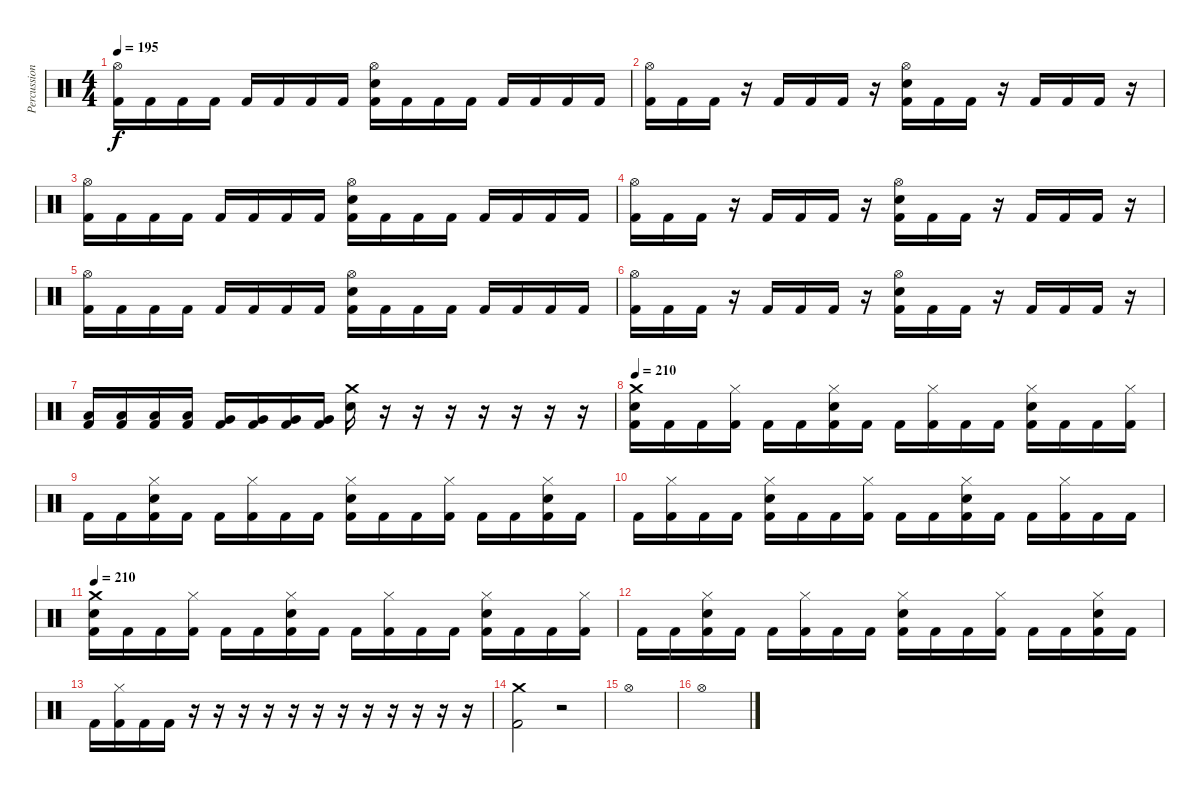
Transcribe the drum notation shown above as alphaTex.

\track ("Percussion" "Percussion") {instrument percussion}
\staff {score}
\articulation defaults
\ts (4 4)
\tempo 195
\clef neutral
\ks c
("Hi-Hat (open)" "Kick (hit) 2").16{dy f} "Kick (hit) 2".16 "Kick (hit) 2".16 "Kick (hit) 2".16 "Kick (hit) 2".16 "Kick (hit) 2".16 "Kick (hit) 2".16 "Kick (hit) 2".16 ("Hi-Hat (open)" "Snare (hit) 2" "Kick (hit) 2").16 "Kick (hit) 2".16 "Kick (hit) 2".16 "Kick (hit) 2".16 "Kick (hit) 2".16 "Kick (hit) 2".16 "Kick (hit) 2".16 "Kick (hit) 2".16 |
("Hi-Hat (open)" "Kick (hit) 2").16 "Kick (hit) 2".16 "Kick (hit) 2".16 r.16 "Kick (hit) 2".16 "Kick (hit) 2".16 "Kick (hit) 2".16 r.16 ("Hi-Hat (open)" "Snare (hit) 2" "Kick (hit) 2").16 "Kick (hit) 2".16 "Kick (hit) 2".16 r.16 "Kick (hit) 2".16 "Kick (hit) 2".16 "Kick (hit) 2".16 r.16 |
("Hi-Hat (open)" "Kick (hit) 2").16 "Kick (hit) 2".16 "Kick (hit) 2".16 "Kick (hit) 2".16 "Kick (hit) 2".16 "Kick (hit) 2".16 "Kick (hit) 2".16 "Kick (hit) 2".16 ("Hi-Hat (open)" "Snare (hit) 2" "Kick (hit) 2").16 "Kick (hit) 2".16 "Kick (hit) 2".16 "Kick (hit) 2".16 "Kick (hit) 2".16 "Kick (hit) 2".16 "Kick (hit) 2".16 "Kick (hit) 2".16 |
("Hi-Hat (open)" "Kick (hit) 2").16 "Kick (hit) 2".16 "Kick (hit) 2".16 r.16 "Kick (hit) 2".16 "Kick (hit) 2".16 "Kick (hit) 2".16 r.16 ("Hi-Hat (open)" "Snare (hit) 2" "Kick (hit) 2").16 "Kick (hit) 2".16 "Kick (hit) 2".16 r.16 "Kick (hit) 2".16 "Kick (hit) 2".16 "Kick (hit) 2".16 r.16 |
("Hi-Hat (open)" "Kick (hit) 2").16 "Kick (hit) 2".16 "Kick (hit) 2".16 "Kick (hit) 2".16 "Kick (hit) 2".16 "Kick (hit) 2".16 "Kick (hit) 2".16 "Kick (hit) 2".16 ("Hi-Hat (open)" "Snare (hit) 2" "Kick (hit) 2").16 "Kick (hit) 2".16 "Kick (hit) 2".16 "Kick (hit) 2".16 "Kick (hit) 2".16 "Kick (hit) 2".16 "Kick (hit) 2".16 "Kick (hit) 2".16 |
("Hi-Hat (open)" "Kick (hit) 2").16 "Kick (hit) 2".16 "Kick (hit) 2".16 r.16 "Kick (hit) 2".16 "Kick (hit) 2".16 "Kick (hit) 2".16 r.16 ("Hi-Hat (open)" "Snare (hit) 2" "Kick (hit) 2").16 "Kick (hit) 2".16 "Kick (hit) 2".16 r.16 "Kick (hit) 2".16 "Kick (hit) 2".16 "Kick (hit) 2".16 r.16 |
("Low Floor Tom (hit)" "Kick (hit) 2").16 ("Low Floor Tom (hit)" "Kick (hit) 2").16 ("Low Floor Tom (hit)" "Kick (hit) 2").16 ("Low Floor Tom (hit)" "Kick (hit) 2").16 ("Very Low Tom (hit)" "Kick (hit) 2").16 ("Very Low Tom (hit)" "Kick (hit) 2").16 ("Very Low Tom (hit)" "Kick (hit) 2").16 ("Very Low Tom (hit)" "Kick (hit) 2").16 ("Crash medium (hit)" "Snare (hit) 2").16 r.16 r.16 r.16 r.16 r.16 r.16 r.16 |
\tempo 210
("Crash medium (hit)" "Snare (hit) 2" "Kick (hit) 2").16 "Kick (hit) 2".16 "Kick (hit) 2".16 ("Hi-Hat (closed)" "Kick (hit) 2").16 "Kick (hit) 2".16 "Kick (hit) 2".16 ("Hi-Hat (closed)" "Snare (hit) 2" "Kick (hit) 2").16 "Kick (hit) 2".16 "Kick (hit) 2".16 ("Hi-Hat (closed)" "Kick (hit) 2").16 "Kick (hit) 2".16 "Kick (hit) 2".16 ("Hi-Hat (closed)" "Snare (hit) 2" "Kick (hit) 2").16 "Kick (hit) 2".16 "Kick (hit) 2".16 ("Hi-Hat (closed)" "Kick (hit) 2").16 |
"Kick (hit) 2".16 "Kick (hit) 2".16 ("Hi-Hat (closed)" "Snare (hit) 2" "Kick (hit) 2").16 "Kick (hit) 2".16 "Kick (hit) 2".16 ("Hi-Hat (closed)" "Kick (hit) 2").16 "Kick (hit) 2".16 "Kick (hit) 2".16 ("Hi-Hat (closed)" "Snare (hit) 2" "Kick (hit) 2").16 "Kick (hit) 2".16 "Kick (hit) 2".16 ("Hi-Hat (closed)" "Kick (hit) 2").16 "Kick (hit) 2".16 "Kick (hit) 2".16 ("Hi-Hat (closed)" "Snare (hit) 2" "Kick (hit) 2").16 "Kick (hit) 2".16 |
"Kick (hit) 2".16 ("Hi-Hat (closed)" "Kick (hit) 2").16 "Kick (hit) 2".16 "Kick (hit) 2".16 ("Hi-Hat (closed)" "Snare (hit) 2" "Kick (hit) 2").16 "Kick (hit) 2".16 "Kick (hit) 2".16 ("Hi-Hat (closed)" "Kick (hit) 2").16 "Kick (hit) 2".16 "Kick (hit) 2".16 ("Hi-Hat (closed)" "Snare (hit) 2" "Kick (hit) 2").16 "Kick (hit) 2".16 "Kick (hit) 2".16 ("Hi-Hat (closed)" "Kick (hit) 2").16 "Kick (hit) 2".16 "Kick (hit) 2".16 |
\tempo 210
("Crash medium (hit)" "Snare (hit) 2" "Kick (hit) 2").16 "Kick (hit) 2".16 "Kick (hit) 2".16 ("Hi-Hat (closed)" "Kick (hit) 2").16 "Kick (hit) 2".16 "Kick (hit) 2".16 ("Hi-Hat (closed)" "Snare (hit) 2" "Kick (hit) 2").16 "Kick (hit) 2".16 "Kick (hit) 2".16 ("Hi-Hat (closed)" "Kick (hit) 2").16 "Kick (hit) 2".16 "Kick (hit) 2".16 ("Hi-Hat (closed)" "Snare (hit) 2" "Kick (hit) 2").16 "Kick (hit) 2".16 "Kick (hit) 2".16 ("Hi-Hat (closed)" "Kick (hit) 2").16 |
"Kick (hit) 2".16 "Kick (hit) 2".16 ("Hi-Hat (closed)" "Snare (hit) 2" "Kick (hit) 2").16 "Kick (hit) 2".16 "Kick (hit) 2".16 ("Hi-Hat (closed)" "Kick (hit) 2").16 "Kick (hit) 2".16 "Kick (hit) 2".16 ("Hi-Hat (closed)" "Snare (hit) 2" "Kick (hit) 2").16 "Kick (hit) 2".16 "Kick (hit) 2".16 ("Hi-Hat (closed)" "Kick (hit) 2").16 "Kick (hit) 2".16 "Kick (hit) 2".16 ("Hi-Hat (closed)" "Snare (hit) 2" "Kick (hit) 2").16 "Kick (hit) 2".16 |
"Kick (hit) 2".16 ("Hi-Hat (closed)" "Kick (hit) 2").16 "Kick (hit) 2".16 "Kick (hit) 2".16 r.16 r.16 r.16 r.16 r.16 r.16 r.16 r.16 r.16 r.16 r.16 r.16 |
("Crash medium (hit)" "Kick (hit) 2").2 r.2 |
"Hi-Hat (open)".1 |
"Hi-Hat (open)".1
